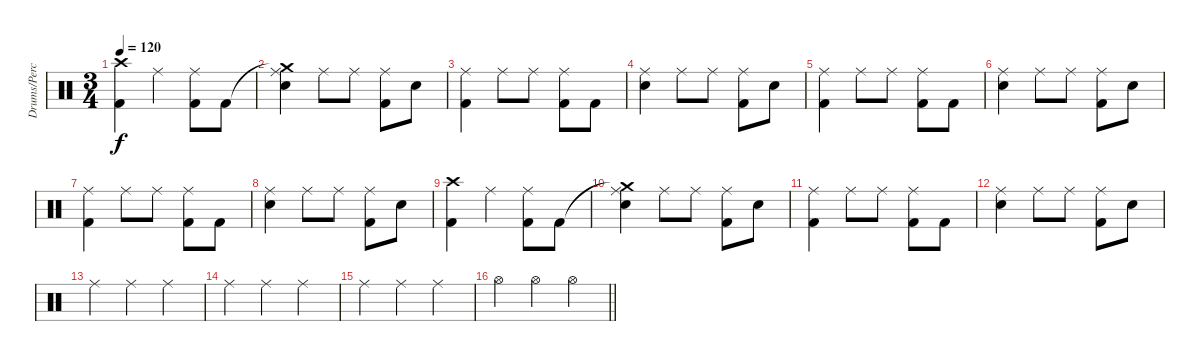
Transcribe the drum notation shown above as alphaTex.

\track ("Drums/Percussion" "Drums/Perc") {instrument percussion}
\staff {score}
\articulation defaults
\ts (3 4)
\tempo 120
\clef neutral
\ks c
("Crash high (hit)" "Kick (hit) 2").4{dy f} "Ride (middle)".4 ("Ride (middle)" "Kick (hit) 2").8 "Kick (hit) 2".8 |
("Crash medium (hit)"{t} "Ride (middle)" "Snare (hit) 2").4 "Ride (middle)".8 "Ride (middle)".8 ("Ride (middle)" "Kick (hit) 2").8 "Snare (hit) 2".8 |
("Ride (middle)" "Kick (hit) 2").4 "Ride (middle)".8 "Ride (middle)".8 ("Ride (middle)" "Kick (hit) 2").8 "Kick (hit) 2".8 |
("Ride (middle)" "Snare (hit) 2").4 "Ride (middle)".8 "Ride (middle)".8 ("Ride (middle)" "Kick (hit) 2").8 "Snare (hit) 2".8 |
("Ride (middle)" "Kick (hit) 2").4 "Ride (middle)".8 "Ride (middle)".8 ("Ride (middle)" "Kick (hit) 2").8 "Kick (hit) 2".8 |
("Ride (middle)" "Snare (hit) 2").4 "Ride (middle)".8 "Ride (middle)".8 ("Ride (middle)" "Kick (hit) 2").8 "Snare (hit) 2".8 |
("Ride (middle)" "Kick (hit) 2").4 "Ride (middle)".8 "Ride (middle)".8 ("Ride (middle)" "Kick (hit) 2").8 "Kick (hit) 2".8 |
("Ride (middle)" "Snare (hit) 2").4 "Ride (middle)".8 "Ride (middle)".8 ("Ride (middle)" "Kick (hit) 2").8 "Snare (hit) 2".8 |
("Crash high (hit)" "Kick (hit) 2").4 "Ride (middle)".4 ("Ride (middle)" "Kick (hit) 2").8 "Kick (hit) 2".8 |
("Crash medium (hit)"{t} "Ride (middle)" "Snare (hit) 2").4 "Ride (middle)".8 "Ride (middle)".8 ("Ride (middle)" "Kick (hit) 2").8 "Snare (hit) 2".8 |
("Ride (middle)" "Kick (hit) 2").4 "Ride (middle)".8 "Ride (middle)".8 ("Ride (middle)" "Kick (hit) 2").8 "Kick (hit) 2".8 |
("Ride (middle)" "Snare (hit) 2").4 "Ride (middle)".8 "Ride (middle)".8 ("Ride (middle)" "Kick (hit) 2").8 "Snare (hit) 2".8 |
"Ride (middle)".4 "Ride (middle)".4 "Ride (middle)".4 |
"Ride (middle)".4 "Ride (middle)".4 "Ride (middle)".4 |
"Ride (middle)".4 "Ride (middle)".4 "Ride (middle)".4 |
\barLineRight lightlight "Hi-Hat (open)".4 "Hi-Hat (open)".4 "Hi-Hat (open)".4
